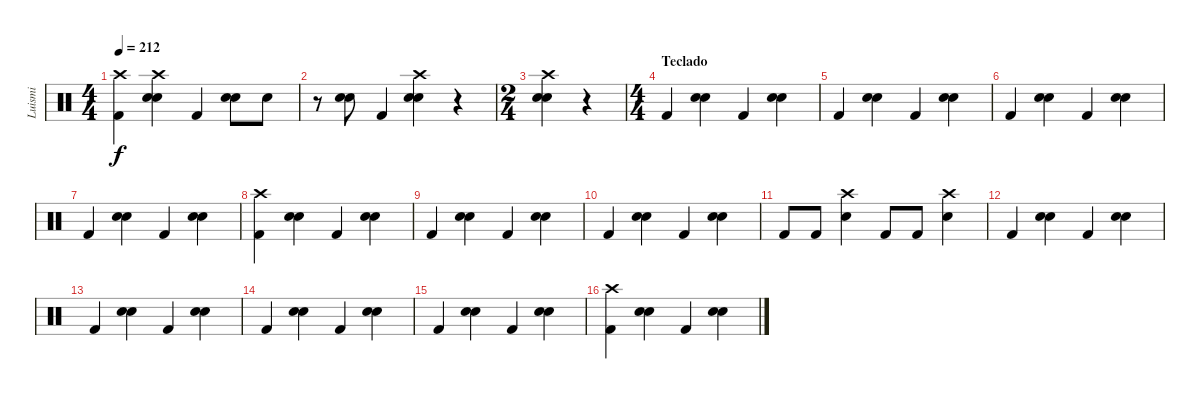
\track ("Luismi" "Luismi") {instrument percussion}
\staff {score}
\articulation defaults
\ts (4 4)
\tempo 212
\clef neutral
\ks c
("Crash high (hit)" "Kick (hit) 2").4{dy f} ("Crash high (hit)" "Electric Snare (hit)" "Snare (hit) 2").4 "Kick (hit) 2".4 ("Electric Snare (hit)" "Snare (hit) 2").8 "Snare (hit) 2".8 |
r.8 ("Electric Snare (hit)" "Snare (hit) 2").8 "Kick (hit) 2".4 ("Crash high (hit)" "Electric Snare (hit)" "Snare (hit) 2").4 r.4 |
\ts (2 4)
("Crash high (hit)" "Electric Snare (hit)" "Snare (hit) 2").4 r.4 |
\ts (4 4)
\section ("" "Teclado")
"Kick (hit) 2".4 ("Electric Snare (hit)" "Snare (hit) 2").4 "Kick (hit) 2".4 ("Electric Snare (hit)" "Snare (hit) 2").4 |
"Kick (hit) 2".4 ("Electric Snare (hit)" "Snare (hit) 2").4 "Kick (hit) 2".4 ("Electric Snare (hit)" "Snare (hit) 2").4 |
"Kick (hit) 2".4 ("Snare (hit) 2" "Electric Snare (hit)").4 "Kick (hit) 2".4 ("Electric Snare (hit)" "Snare (hit) 2").4 |
"Kick (hit) 2".4 ("Electric Snare (hit)" "Snare (hit) 2").4 "Kick (hit) 2".4 ("Electric Snare (hit)" "Snare (hit) 2").4 |
("Crash high (hit)" "Kick (hit) 2").4 ("Electric Snare (hit)" "Snare (hit) 2").4 "Kick (hit) 2".4 ("Electric Snare (hit)" "Snare (hit) 2").4 |
"Kick (hit) 2".4 ("Electric Snare (hit)" "Snare (hit) 2").4 "Kick (hit) 2".4 ("Electric Snare (hit)" "Snare (hit) 2").4 |
"Kick (hit) 2".4 ("Snare (hit) 2" "Electric Snare (hit)").4 "Kick (hit) 2".4 ("Electric Snare (hit)" "Snare (hit) 2").4 |
"Kick (hit) 2".8 "Kick (hit) 2".8 ("Crash high (hit)" "Electric Snare (hit)").4 "Kick (hit) 2".8 "Kick (hit) 2".8 ("Crash high (hit)" "Electric Snare (hit)").4 |
"Kick (hit) 2".4 ("Electric Snare (hit)" "Snare (hit) 2").4 "Kick (hit) 2".4 ("Electric Snare (hit)" "Snare (hit) 2").4 |
"Kick (hit) 2".4 ("Electric Snare (hit)" "Snare (hit) 2").4 "Kick (hit) 2".4 ("Electric Snare (hit)" "Snare (hit) 2").4 |
"Kick (hit) 2".4 ("Snare (hit) 2" "Electric Snare (hit)").4 "Kick (hit) 2".4 ("Electric Snare (hit)" "Snare (hit) 2").4 |
"Kick (hit) 2".4 ("Electric Snare (hit)" "Snare (hit) 2").4 "Kick (hit) 2".4 ("Electric Snare (hit)" "Snare (hit) 2").4 |
("Crash high (hit)" "Kick (hit) 2").4 ("Electric Snare (hit)" "Snare (hit) 2").4 "Kick (hit) 2".4 ("Electric Snare (hit)" "Snare (hit) 2").4
